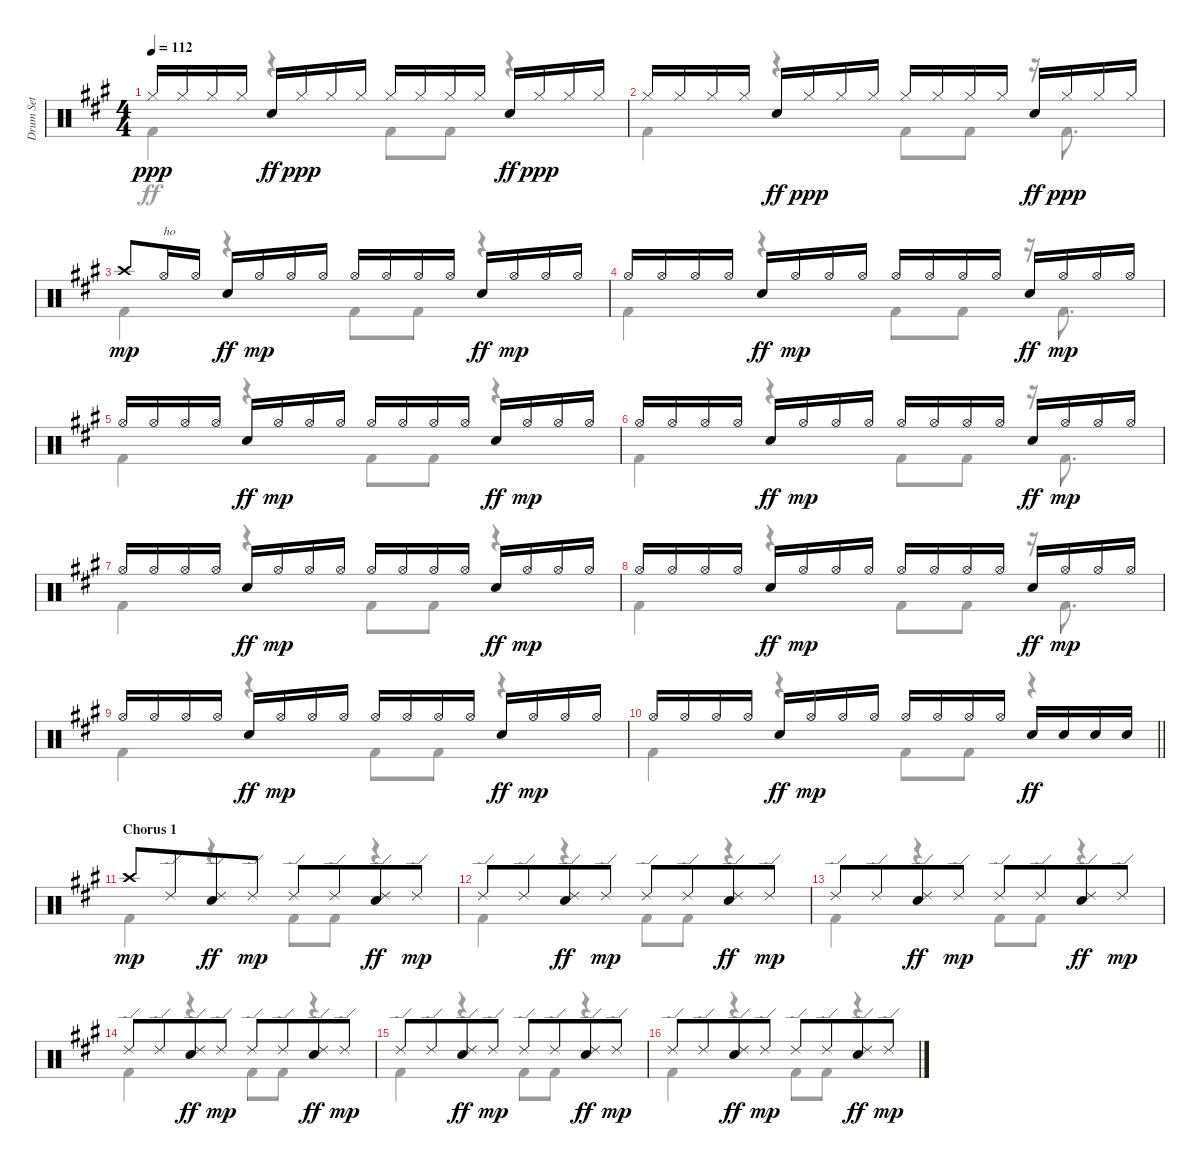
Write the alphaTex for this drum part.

\track ("Drum Set" "Drum Set") {instrument percussion}
\staff {score}
\articulation defaults
\voice
\ts (4 4)
\tempo 112
\clef neutral
\ks f#minor "Hi-Hat (closed)".16{dy ppp} "Hi-Hat (closed)".16 "Hi-Hat (closed)".16 "Hi-Hat (closed)".16 "Electric Snare (hit)".16{dy ff} "Hi-Hat (closed)".16{dy ppp} "Hi-Hat (closed)".16 "Hi-Hat (closed)".16 "Hi-Hat (closed)".16 "Hi-Hat (closed)".16 "Hi-Hat (closed)".16 "Hi-Hat (closed)".16 "Electric Snare (hit)".16{dy ff} "Hi-Hat (closed)".16{dy ppp} "Hi-Hat (closed)".16 "Hi-Hat (closed)".16
|
"Hi-Hat (closed)".16 "Hi-Hat (closed)".16 "Hi-Hat (closed)".16 "Hi-Hat (closed)".16 "Electric Snare (hit)".16{dy ff} "Hi-Hat (closed)".16{dy ppp} "Hi-Hat (closed)".16 "Hi-Hat (closed)".16 "Hi-Hat (closed)".16 "Hi-Hat (closed)".16 "Hi-Hat (closed)".16 "Hi-Hat (closed)".16 "Electric Snare (hit)".16{dy ff} "Hi-Hat (closed)".16{dy ppp} "Hi-Hat (closed)".16 "Hi-Hat (closed)".16 |
"Crash high (hit)".8{dy mp} "Hi-Hat (open)".16{txt "ho"} "Hi-Hat (open)".16 "Electric Snare (hit)".16{dy ff} "Hi-Hat (open)".16{dy mp} "Hi-Hat (open)".16 "Hi-Hat (open)".16 "Hi-Hat (open)".16 "Hi-Hat (open)".16 "Hi-Hat (open)".16 "Hi-Hat (open)".16 "Electric Snare (hit)".16{dy ff} "Hi-Hat (open)".16{dy mp} "Hi-Hat (open)".16 "Hi-Hat (open)".16 |
"Hi-Hat (open)".16 "Hi-Hat (open)".16 "Hi-Hat (open)".16 "Hi-Hat (open)".16 "Electric Snare (hit)".16{dy ff} "Hi-Hat (open)".16{dy mp} "Hi-Hat (open)".16 "Hi-Hat (open)".16 "Hi-Hat (open)".16 "Hi-Hat (open)".16 "Hi-Hat (open)".16 "Hi-Hat (open)".16 "Electric Snare (hit)".16{dy ff} "Hi-Hat (open)".16{dy mp} "Hi-Hat (open)".16 "Hi-Hat (open)".16 |
"Hi-Hat (open)".16 "Hi-Hat (open)".16 "Hi-Hat (open)".16 "Hi-Hat (open)".16 "Electric Snare (hit)".16{dy ff} "Hi-Hat (open)".16{dy mp} "Hi-Hat (open)".16 "Hi-Hat (open)".16 "Hi-Hat (open)".16 "Hi-Hat (open)".16 "Hi-Hat (open)".16 "Hi-Hat (open)".16 "Electric Snare (hit)".16{dy ff} "Hi-Hat (open)".16{dy mp} "Hi-Hat (open)".16 "Hi-Hat (open)".16 |
"Hi-Hat (open)".16 "Hi-Hat (open)".16 "Hi-Hat (open)".16 "Hi-Hat (open)".16 "Electric Snare (hit)".16{dy ff} "Hi-Hat (open)".16{dy mp} "Hi-Hat (open)".16 "Hi-Hat (open)".16 "Hi-Hat (open)".16 "Hi-Hat (open)".16 "Hi-Hat (open)".16 "Hi-Hat (open)".16 "Electric Snare (hit)".16{dy ff} "Hi-Hat (open)".16{dy mp} "Hi-Hat (open)".16 "Hi-Hat (open)".16 |
"Hi-Hat (open)".16 "Hi-Hat (open)".16 "Hi-Hat (open)".16 "Hi-Hat (open)".16 "Electric Snare (hit)".16{dy ff} "Hi-Hat (open)".16{dy mp} "Hi-Hat (open)".16 "Hi-Hat (open)".16 "Hi-Hat (open)".16 "Hi-Hat (open)".16 "Hi-Hat (open)".16 "Hi-Hat (open)".16 "Electric Snare (hit)".16{dy ff} "Hi-Hat (open)".16{dy mp} "Hi-Hat (open)".16 "Hi-Hat (open)".16 |
"Hi-Hat (open)".16 "Hi-Hat (open)".16 "Hi-Hat (open)".16 "Hi-Hat (open)".16 "Electric Snare (hit)".16{dy ff} "Hi-Hat (open)".16{dy mp} "Hi-Hat (open)".16 "Hi-Hat (open)".16 "Hi-Hat (open)".16 "Hi-Hat (open)".16 "Hi-Hat (open)".16 "Hi-Hat (open)".16 "Electric Snare (hit)".16{dy ff} "Hi-Hat (open)".16{dy mp} "Hi-Hat (open)".16 "Hi-Hat (open)".16 |
"Hi-Hat (open)".16 "Hi-Hat (open)".16 "Hi-Hat (open)".16 "Hi-Hat (open)".16 "Electric Snare (hit)".16{dy ff} "Hi-Hat (open)".16{dy mp} "Hi-Hat (open)".16 "Hi-Hat (open)".16 "Hi-Hat (open)".16 "Hi-Hat (open)".16 "Hi-Hat (open)".16 "Hi-Hat (open)".16 "Electric Snare (hit)".16{dy ff} "Hi-Hat (open)".16{dy mp} "Hi-Hat (open)".16 "Hi-Hat (open)".16 |
\barLineRight lightlight "Hi-Hat (open)".16 "Hi-Hat (open)".16 "Hi-Hat (open)".16 "Hi-Hat (open)".16 "Electric Snare (hit)".16{dy ff} "Hi-Hat (open)".16{dy mp} "Hi-Hat (open)".16 "Hi-Hat (open)".16 "Hi-Hat (open)".16 "Hi-Hat (open)".16 "Hi-Hat (open)".16 "Hi-Hat (open)".16 "Electric Snare (hit)".16{dy ff} "Electric Snare (hit)".16 "Electric Snare (hit)".16 "Electric Snare (hit)".16
|
\section ("" "Chorus 1")
"Crash high (hit)".8{dy mp} "Ride (edge) 2".8{beam merge} ("Ride (edge) 2" "Electric Snare (hit)").8{dy ff} "Ride (edge) 2".8{dy mp} "Ride (edge) 2".8 "Ride (edge) 2".8{beam merge} ("Ride (edge) 2" "Electric Snare (hit)").8{dy ff} "Ride (edge) 2".8{dy mp} |
"Ride (edge) 2".8 "Ride (edge) 2".8{beam merge} ("Ride (edge) 2" "Electric Snare (hit)").8{dy ff} "Ride (edge) 2".8{dy mp} "Ride (edge) 2".8 "Ride (edge) 2".8{beam merge} ("Ride (edge) 2" "Electric Snare (hit)").8{dy ff} "Ride (edge) 2".8{dy mp} |
"Ride (edge) 2".8 "Ride (edge) 2".8{beam merge} ("Ride (edge) 2" "Electric Snare (hit)").8{dy ff} "Ride (edge) 2".8{dy mp} "Ride (edge) 2".8 "Ride (edge) 2".8{beam merge} ("Ride (edge) 2" "Electric Snare (hit)").8{dy ff} "Ride (edge) 2".8{dy mp} |
"Ride (edge) 2".8 "Ride (edge) 2".8{beam merge} ("Ride (edge) 2" "Electric Snare (hit)").8{dy ff} "Ride (edge) 2".8{dy mp} "Ride (edge) 2".8 "Ride (edge) 2".8{beam merge} ("Ride (edge) 2" "Electric Snare (hit)").8{dy ff} "Ride (edge) 2".8{dy mp} |
"Ride (edge) 2".8 "Ride (edge) 2".8{beam merge} ("Ride (edge) 2" "Electric Snare (hit)").8{dy ff} "Ride (edge) 2".8{dy mp} "Ride (edge) 2".8 "Ride (edge) 2".8{beam merge} ("Ride (edge) 2" "Electric Snare (hit)").8{dy ff} "Ride (edge) 2".8{dy mp} |
"Ride (edge) 2".8 "Ride (edge) 2".8{beam merge} ("Ride (edge) 2" "Electric Snare (hit)").8{dy ff} "Ride (edge) 2".8{dy mp} "Ride (edge) 2".8 "Ride (edge) 2".8{beam merge} ("Ride (edge) 2" "Electric Snare (hit)").8{dy ff} "Ride (edge) 2".8{dy mp}
\voice
\clef neutral
\ottava regular
\simile none
\ks f#minor "Kick (hit) 2".4{dy ff}
r.4 "Kick (hit) 2".8 "Kick (hit) 2".8 r.4 |
"Kick (hit) 2".4 r.4 "Kick (hit) 2".8 "Kick (hit) 2".8 r.16 "Kick (hit) 2".8{d} |
"Kick (hit) 2".4 r.4 "Kick (hit) 2".8 "Kick (hit) 2".8 r.4 |
"Kick (hit) 2".4 r.4 "Kick (hit) 2".8 "Kick (hit) 2".8 r.16 "Kick (hit) 2".8{d} |
"Kick (hit) 2".4 r.4 "Kick (hit) 2".8 "Kick (hit) 2".8 r.4 |
"Kick (hit) 2".4 r.4 "Kick (hit) 2".8 "Kick (hit) 2".8 r.16 "Kick (hit) 2".8{d} |
"Kick (hit) 2".4 r.4 "Kick (hit) 2".8 "Kick (hit) 2".8 r.4 |
"Kick (hit) 2".4 r.4 "Kick (hit) 2".8 "Kick (hit) 2".8 r.16 "Kick (hit) 2".8{d} |
"Kick (hit) 2".4 r.4 "Kick (hit) 2".8 "Kick (hit) 2".8 r.4 |
\barLineRight lightlight "Kick (hit) 2".4
r.4 "Kick (hit) 2".8 "Kick (hit) 2".8 r.4 |
"Kick (hit) 2".4 r.4 "Kick (hit) 2".8 "Kick (hit) 2".8 r.4 |
"Kick (hit) 2".4 r.4 "Kick (hit) 2".8 "Kick (hit) 2".8 r.4 |
"Kick (hit) 2".4 r.4 "Kick (hit) 2".8 "Kick (hit) 2".8 r.4 |
"Kick (hit) 2".4 r.4 "Kick (hit) 2".8 "Kick (hit) 2".8 r.4 |
"Kick (hit) 2".4 r.4 "Kick (hit) 2".8 "Kick (hit) 2".8 r.4 |
"Kick (hit) 2".4 r.4 "Kick (hit) 2".8 "Kick (hit) 2".8 r.4
